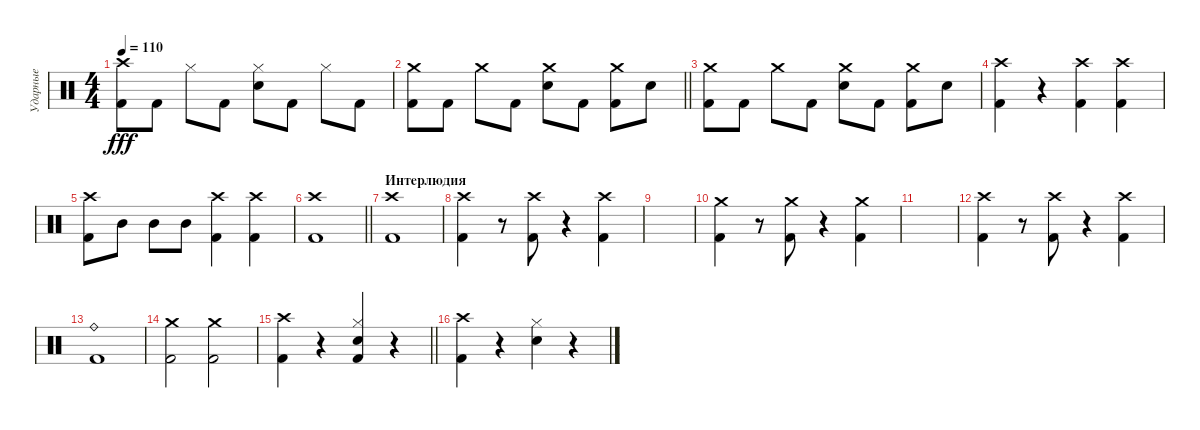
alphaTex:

\track ("Ударные" "Ударные") {mute instrument percussion}
\staff {score}
\articulation defaults
\ts (4 4)
\tempo 110
\clef neutral
\ks c
("Crash high (hit)" "Kick (hit) 2").8{dy fff} "Kick (hit) 2".8 "Hi-Hat (closed)".8 "Kick (hit) 2".8 ("Hi-Hat (closed)" "Snare (hit) 2").8 "Kick (hit) 2".8 "Hi-Hat (closed)".8 "Kick (hit) 2".8 |
\barLineRight lightlight
("Crash medium (hit)" "Kick (hit) 2").8 "Kick (hit) 2".8 "Crash medium (hit)".8 "Kick (hit) 2".8 ("Crash medium (hit)" "Snare (hit) 2").8 "Kick (hit) 2".8 ("Crash medium (hit)" "Kick (hit) 2").8 "Snare (hit) 2".8 |
("Crash medium (hit)" "Kick (hit) 2").8 "Kick (hit) 2".8 "Crash medium (hit)".8 "Kick (hit) 2".8 ("Crash medium (hit)" "Snare (hit) 2").8 "Kick (hit) 2".8 ("Crash medium (hit)" "Kick (hit) 2").8 "Snare (hit) 2".8 |
("Crash high (hit)" "Kick (hit) 2").4 r.4 ("Crash high (hit)" "Kick (hit) 2").4 ("Crash high (hit)" "Kick (hit) 2").4 |
("Crash high (hit)" "Kick (hit) 2").8 "Mid Tom (hit)".8 "Mid Tom (hit)".8 "Mid Tom (hit)".8 ("Crash high (hit)" "Kick (hit) 2").4 ("Crash high (hit)" "Kick (hit) 2").4 |
\barLineRight lightlight
("Crash high (hit)" "Kick (hit) 2").1 |
\section ("" "Интерлюдия")
("Crash high (hit)" "Kick (hit) 2").1 |
("Crash high (hit)" "Kick (hit) 2").4 r.8 ("Crash high (hit)" "Kick (hit) 2").8 r.4 ("Crash high (hit)" "Kick (hit) 2").4 |
|
("Crash medium (hit)" "Kick (hit) 2").4 r.8 ("Crash medium (hit)" "Kick (hit) 2").8 r.4 ("Crash medium (hit)" "Kick (hit) 2").4 |
|
("Crash high (hit)" "Kick (hit) 2").4 r.8 ("Crash high (hit)" "Kick (hit) 2").8 r.4 ("Crash high (hit)" "Kick (hit) 2").4 |
("Ride (bell)" "Kick (hit) 2").1 |
("Crash medium (hit)" "Kick (hit) 2").2 ("Crash medium (hit)" "Kick (hit) 2").2 |
\barLineRight lightlight
("Crash high (hit)" "Kick (hit) 2").4 r.4 ("Hi-Hat (closed)" "Snare (hit) 2" "Kick (hit) 2").4 r.4 |
\section ("" "")
("Crash high (hit)" "Kick (hit) 2").4 r.4 ("Hi-Hat (closed)" "Snare (hit) 2").4 r.4
